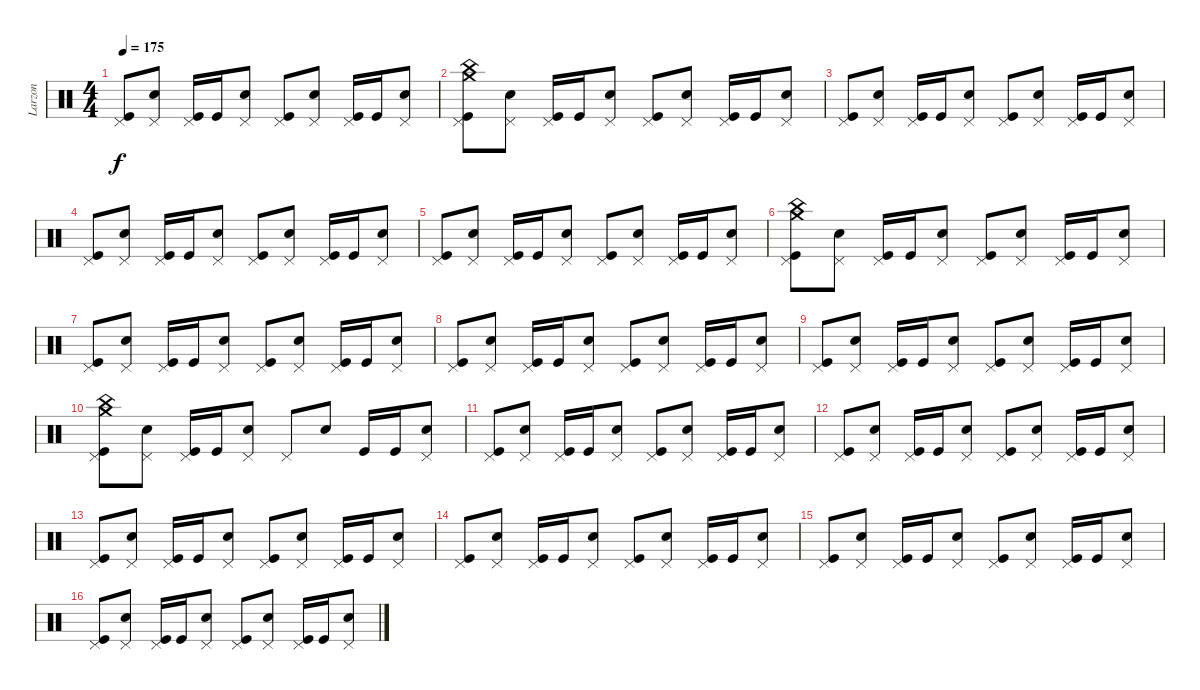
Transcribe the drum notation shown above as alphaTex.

\track ("Larzon" "Larzon") {instrument percussion}
\staff {score}
\articulation defaults
\ts (4 4)
\tempo 175
\clef neutral
\ks c
("Pedal Hi-Hat (hit)" "Kick (hit)").8{dy f} ("Snare (hit) 2" "Pedal Hi-Hat (hit)").8 ("Kick (hit)" "Pedal Hi-Hat (hit)").16 "Kick (hit)".16 ("Snare (hit) 2" "Pedal Hi-Hat (hit)").8 ("Kick (hit)" "Pedal Hi-Hat (hit)").8 ("Snare (hit) 2" "Pedal Hi-Hat (hit)").8 ("Kick (hit)" "Pedal Hi-Hat (hit)").16 "Kick (hit)".16 ("Snare (hit) 2" "Pedal Hi-Hat (hit)").8 |
("Kick (hit)" "Pedal Hi-Hat (hit)" "Crash medium (hit)" "China (hit)").8 ("Snare (hit) 2" "Pedal Hi-Hat (hit)").8 ("Kick (hit)" "Pedal Hi-Hat (hit)").16 "Kick (hit)".16 ("Snare (hit) 2" "Pedal Hi-Hat (hit)").8 ("Pedal Hi-Hat (hit)" "Kick (hit)").8 ("Snare (hit) 2" "Pedal Hi-Hat (hit)").8 ("Kick (hit)" "Pedal Hi-Hat (hit)").16 "Kick (hit)".16 ("Snare (hit) 2" "Pedal Hi-Hat (hit)").8 |
("Pedal Hi-Hat (hit)" "Kick (hit)").8 ("Snare (hit) 2" "Pedal Hi-Hat (hit)").8 ("Kick (hit)" "Pedal Hi-Hat (hit)").16 "Kick (hit)".16 ("Snare (hit) 2" "Pedal Hi-Hat (hit)").8 ("Kick (hit)" "Pedal Hi-Hat (hit)").8 ("Snare (hit) 2" "Pedal Hi-Hat (hit)").8 ("Kick (hit)" "Pedal Hi-Hat (hit)").16 "Kick (hit)".16 ("Snare (hit) 2" "Pedal Hi-Hat (hit)").8 |
("Pedal Hi-Hat (hit)" "Kick (hit)").8 ("Snare (hit) 2" "Pedal Hi-Hat (hit)").8 ("Kick (hit)" "Pedal Hi-Hat (hit)").16 "Kick (hit)".16 ("Snare (hit) 2" "Pedal Hi-Hat (hit)").8 ("Kick (hit)" "Pedal Hi-Hat (hit)").8 ("Snare (hit) 2" "Pedal Hi-Hat (hit)").8 ("Kick (hit)" "Pedal Hi-Hat (hit)").16 "Kick (hit)".16 ("Snare (hit) 2" "Pedal Hi-Hat (hit)").8 |
("Pedal Hi-Hat (hit)" "Kick (hit)").8 ("Snare (hit) 2" "Pedal Hi-Hat (hit)").8 ("Kick (hit)" "Pedal Hi-Hat (hit)").16 "Kick (hit)".16 ("Snare (hit) 2" "Pedal Hi-Hat (hit)").8 ("Kick (hit)" "Pedal Hi-Hat (hit)").8 ("Snare (hit) 2" "Pedal Hi-Hat (hit)").8 ("Kick (hit)" "Pedal Hi-Hat (hit)").16 "Kick (hit)".16 ("Snare (hit) 2" "Pedal Hi-Hat (hit)").8 |
("Kick (hit)" "Pedal Hi-Hat (hit)" "Crash medium (hit)" "China (hit)").8 ("Snare (hit) 2" "Pedal Hi-Hat (hit)").8 ("Kick (hit)" "Pedal Hi-Hat (hit)").16 "Kick (hit)".16 ("Snare (hit) 2" "Pedal Hi-Hat (hit)").8 ("Pedal Hi-Hat (hit)" "Kick (hit)").8 ("Snare (hit) 2" "Pedal Hi-Hat (hit)").8 ("Kick (hit)" "Pedal Hi-Hat (hit)").16 "Kick (hit)".16 ("Snare (hit) 2" "Pedal Hi-Hat (hit)").8 |
("Pedal Hi-Hat (hit)" "Kick (hit)").8 ("Snare (hit) 2" "Pedal Hi-Hat (hit)").8 ("Kick (hit)" "Pedal Hi-Hat (hit)").16 "Kick (hit)".16 ("Snare (hit) 2" "Pedal Hi-Hat (hit)").8 ("Kick (hit)" "Pedal Hi-Hat (hit)").8 ("Snare (hit) 2" "Pedal Hi-Hat (hit)").8 ("Kick (hit)" "Pedal Hi-Hat (hit)").16 "Kick (hit)".16 ("Snare (hit) 2" "Pedal Hi-Hat (hit)").8 |
("Pedal Hi-Hat (hit)" "Kick (hit)").8 ("Snare (hit) 2" "Pedal Hi-Hat (hit)").8 ("Kick (hit)" "Pedal Hi-Hat (hit)").16 "Kick (hit)".16 ("Snare (hit) 2" "Pedal Hi-Hat (hit)").8 ("Kick (hit)" "Pedal Hi-Hat (hit)").8 ("Snare (hit) 2" "Pedal Hi-Hat (hit)").8 ("Kick (hit)" "Pedal Hi-Hat (hit)").16 "Kick (hit)".16 ("Snare (hit) 2" "Pedal Hi-Hat (hit)").8 |
("Pedal Hi-Hat (hit)" "Kick (hit)").8 ("Snare (hit) 2" "Pedal Hi-Hat (hit)").8 ("Kick (hit)" "Pedal Hi-Hat (hit)").16 "Kick (hit)".16 ("Snare (hit) 2" "Pedal Hi-Hat (hit)").8 ("Kick (hit)" "Pedal Hi-Hat (hit)").8 ("Snare (hit) 2" "Pedal Hi-Hat (hit)").8 ("Kick (hit)" "Pedal Hi-Hat (hit)").16 "Kick (hit)".16 ("Snare (hit) 2" "Pedal Hi-Hat (hit)").8 |
("China (hit)" "Crash medium (hit)" "Pedal Hi-Hat (hit)" "Kick (hit)").8 ("Snare (hit) 2" "Pedal Hi-Hat (hit)").8 ("Kick (hit)" "Pedal Hi-Hat (hit)").16 "Kick (hit)".16 ("Snare (hit) 2" "Pedal Hi-Hat (hit)").8 "Pedal Hi-Hat (hit)".8 "Snare (hit) 2".8 "Kick (hit)".16 "Kick (hit)".16 ("Snare (hit) 2" "Pedal Hi-Hat (hit)").8 |
("Kick (hit)" "Pedal Hi-Hat (hit)").8 ("Snare (hit) 2" "Pedal Hi-Hat (hit)").8 ("Kick (hit)" "Pedal Hi-Hat (hit)").16 "Kick (hit)".16 ("Snare (hit) 2" "Pedal Hi-Hat (hit)").8 ("Pedal Hi-Hat (hit)" "Kick (hit)").8 ("Snare (hit) 2" "Pedal Hi-Hat (hit)").8 ("Kick (hit)" "Pedal Hi-Hat (hit)").16 "Kick (hit)".16 ("Snare (hit) 2" "Pedal Hi-Hat (hit)").8 |
("Kick (hit)" "Pedal Hi-Hat (hit)").8 ("Snare (hit) 2" "Pedal Hi-Hat (hit)").8 ("Kick (hit)" "Pedal Hi-Hat (hit)").16 "Kick (hit)".16 ("Snare (hit) 2" "Pedal Hi-Hat (hit)").8 ("Pedal Hi-Hat (hit)" "Kick (hit)").8 ("Snare (hit) 2" "Pedal Hi-Hat (hit)").8 ("Kick (hit)" "Pedal Hi-Hat (hit)").16 "Kick (hit)".16 ("Snare (hit) 2" "Pedal Hi-Hat (hit)").8 |
("Kick (hit)" "Pedal Hi-Hat (hit)").8 ("Snare (hit) 2" "Pedal Hi-Hat (hit)").8 ("Kick (hit)" "Pedal Hi-Hat (hit)").16 "Kick (hit)".16 ("Snare (hit) 2" "Pedal Hi-Hat (hit)").8 ("Pedal Hi-Hat (hit)" "Kick (hit)").8 ("Snare (hit) 2" "Pedal Hi-Hat (hit)").8 ("Kick (hit)" "Pedal Hi-Hat (hit)").16 "Kick (hit)".16 ("Snare (hit) 2" "Pedal Hi-Hat (hit)").8 |
("Kick (hit)" "Pedal Hi-Hat (hit)").8 ("Snare (hit) 2" "Pedal Hi-Hat (hit)").8 ("Kick (hit)" "Pedal Hi-Hat (hit)").16 "Kick (hit)".16 ("Snare (hit) 2" "Pedal Hi-Hat (hit)").8 ("Pedal Hi-Hat (hit)" "Kick (hit)").8 ("Snare (hit) 2" "Pedal Hi-Hat (hit)").8 ("Kick (hit)" "Pedal Hi-Hat (hit)").16 "Kick (hit)".16 ("Snare (hit) 2" "Pedal Hi-Hat (hit)").8 |
("Kick (hit)" "Pedal Hi-Hat (hit)").8 ("Snare (hit) 2" "Pedal Hi-Hat (hit)").8 ("Kick (hit)" "Pedal Hi-Hat (hit)").16 "Kick (hit)".16 ("Snare (hit) 2" "Pedal Hi-Hat (hit)").8 ("Pedal Hi-Hat (hit)" "Kick (hit)").8 ("Snare (hit) 2" "Pedal Hi-Hat (hit)").8 ("Kick (hit)" "Pedal Hi-Hat (hit)").16 "Kick (hit)".16 ("Snare (hit) 2" "Pedal Hi-Hat (hit)").8 |
("Kick (hit)" "Pedal Hi-Hat (hit)").8 ("Snare (hit) 2" "Pedal Hi-Hat (hit)").8 ("Kick (hit)" "Pedal Hi-Hat (hit)").16 "Kick (hit)".16 ("Snare (hit) 2" "Pedal Hi-Hat (hit)").8 ("Pedal Hi-Hat (hit)" "Kick (hit)").8 ("Snare (hit) 2" "Pedal Hi-Hat (hit)").8 ("Kick (hit)" "Pedal Hi-Hat (hit)").16 "Kick (hit)".16 ("Snare (hit) 2" "Pedal Hi-Hat (hit)").8
